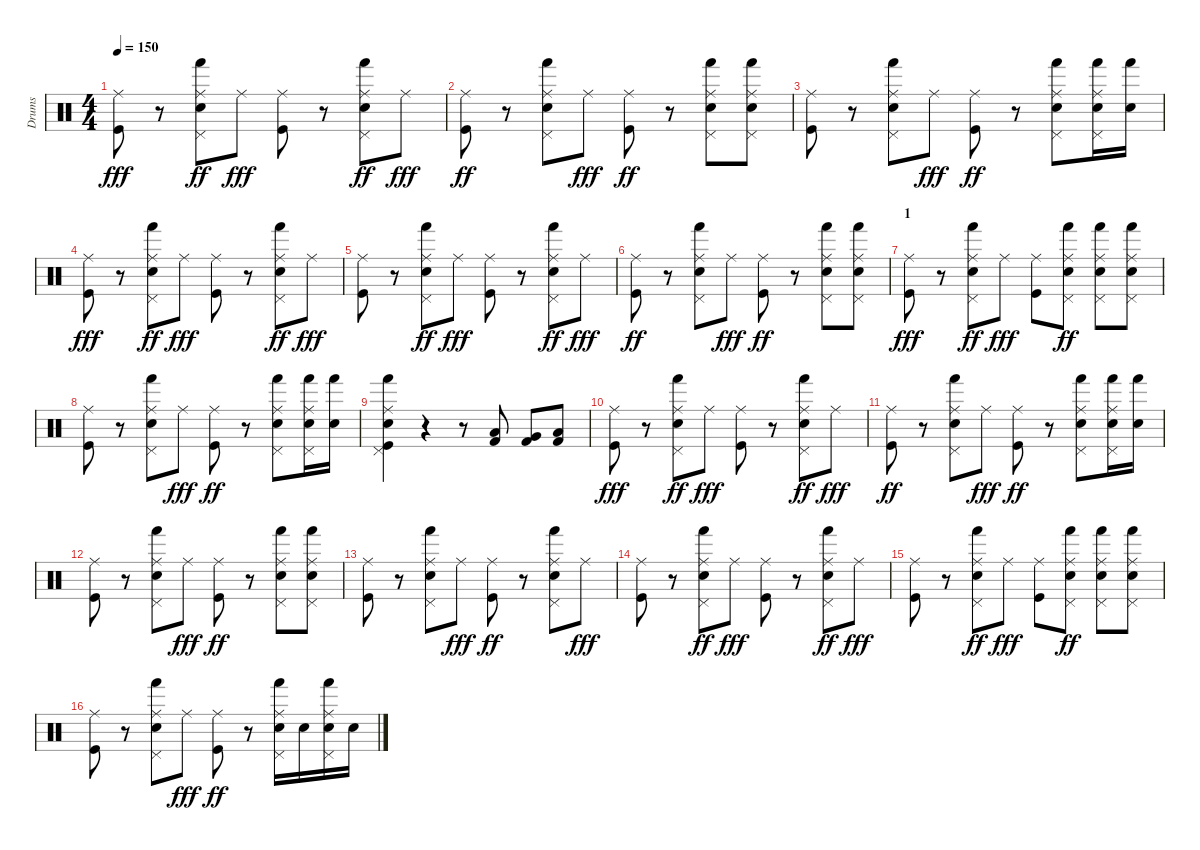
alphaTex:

\track ("Drums" "Drums") {instrument percussion}
\staff {score}
\articulation defaults
\ts (4 4)
\tempo 150
\clef neutral
\ks c
("Ride (middle)" "Kick (hit)").8{dy fff} r.8 ("Ride (middle)" "Pedal Hi-Hat (hit)" "Hand (hit)" "Electric Snare (hit)").8{dy ff} "Ride (middle)".8{dy fff} ("Ride (middle)" "Kick (hit)").8 r.8 ("Ride (middle)" "Pedal Hi-Hat (hit)" "Hand (hit)" "Electric Snare (hit)").8{dy ff} "Ride (middle)".8{dy fff} |
("Ride (middle)" "Kick (hit)").8{dy ff} r.8 ("Ride (middle)" "Pedal Hi-Hat (hit)" "Hand (hit)" "Electric Snare (hit)").8 "Ride (middle)".8{dy fff} ("Ride (middle)" "Kick (hit)").8{dy ff} r.8 ("Ride (middle)" "Pedal Hi-Hat (hit)" "Hand (hit)" "Electric Snare (hit)").8 ("Ride (middle)" "Pedal Hi-Hat (hit)" "Hand (hit)" "Electric Snare (hit)").8 |
("Ride (middle)" "Kick (hit)").8 r.8 ("Ride (middle)" "Pedal Hi-Hat (hit)" "Hand (hit)" "Electric Snare (hit)").8 "Ride (middle)".8{dy fff} ("Ride (middle)" "Kick (hit)").8{dy ff} r.8 ("Ride (middle)" "Pedal Hi-Hat (hit)" "Hand (hit)" "Electric Snare (hit)").8 ("Ride (middle)" "Pedal Hi-Hat (hit)" "Hand (hit)" "Electric Snare (hit)").16 ("Hand (hit)" "Electric Snare (hit)").16 |
("Ride (middle)" "Kick (hit)").8{dy fff} r.8 ("Ride (middle)" "Pedal Hi-Hat (hit)" "Hand (hit)" "Electric Snare (hit)").8{dy ff} "Ride (middle)".8{dy fff} ("Ride (middle)" "Kick (hit)").8 r.8 ("Ride (middle)" "Pedal Hi-Hat (hit)" "Hand (hit)" "Electric Snare (hit)").8{dy ff} "Ride (middle)".8{dy fff} |
("Ride (middle)" "Kick (hit)").8 r.8 ("Ride (middle)" "Pedal Hi-Hat (hit)" "Hand (hit)" "Electric Snare (hit)").8{dy ff} "Ride (middle)".8{dy fff} ("Ride (middle)" "Kick (hit)").8 r.8 ("Ride (middle)" "Pedal Hi-Hat (hit)" "Hand (hit)" "Electric Snare (hit)").8{dy ff} "Ride (middle)".8{dy fff} |
("Ride (middle)" "Kick (hit)").8{dy ff} r.8 ("Ride (middle)" "Pedal Hi-Hat (hit)" "Hand (hit)" "Electric Snare (hit)").8 "Ride (middle)".8{dy fff} ("Ride (middle)" "Kick (hit)").8{dy ff} r.8 ("Ride (middle)" "Pedal Hi-Hat (hit)" "Hand (hit)" "Electric Snare (hit)").8 ("Ride (middle)" "Pedal Hi-Hat (hit)" "Hand (hit)" "Electric Snare (hit)").8 |
\section ("" "1")
("Ride (middle)" "Kick (hit)").8{dy fff} r.8 ("Ride (middle)" "Pedal Hi-Hat (hit)" "Hand (hit)" "Electric Snare (hit)").8{dy ff} "Ride (middle)".8{dy fff} ("Ride (middle)" "Kick (hit)").8 ("Ride (middle)" "Pedal Hi-Hat (hit)" "Hand (hit)" "Electric Snare (hit)").8{dy ff} ("Ride (middle)" "Pedal Hi-Hat (hit)" "Hand (hit)" "Electric Snare (hit)").8 ("Ride (middle)" "Pedal Hi-Hat (hit)" "Hand (hit)" "Electric Snare (hit)").8 |
("Ride (middle)" "Kick (hit)").8 r.8 ("Ride (middle)" "Pedal Hi-Hat (hit)" "Hand (hit)" "Electric Snare (hit)").8 "Ride (middle)".8{dy fff} ("Ride (middle)" "Kick (hit)").8{dy ff} r.8 ("Ride (middle)" "Pedal Hi-Hat (hit)" "Hand (hit)" "Electric Snare (hit)").8 ("Ride (middle)" "Pedal Hi-Hat (hit)" "Hand (hit)" "Electric Snare (hit)").16 ("Hand (hit)" "Electric Snare (hit)").16 |
("Ride (middle)" "Pedal Hi-Hat (hit)" "Hand (hit)" "Electric Snare (hit)" "Kick (hit)").4 r.4 r.8 ("Low Floor Tom (hit)" "Kick (hit) 2").8 ("Very Low Tom (hit)" "Kick (hit) 2").8 ("Low Tom (hit)" "Kick (hit) 2").8 |
("Ride (middle)" "Kick (hit)").8{dy fff} r.8 ("Ride (middle)" "Pedal Hi-Hat (hit)" "Hand (hit)" "Electric Snare (hit)").8{dy ff} "Ride (middle)".8{dy fff} ("Ride (middle)" "Kick (hit)").8 r.8 ("Ride (middle)" "Pedal Hi-Hat (hit)" "Hand (hit)" "Electric Snare (hit)").8{dy ff} "Ride (middle)".8{dy fff} |
("Ride (middle)" "Kick (hit)").8{dy ff} r.8 ("Ride (middle)" "Pedal Hi-Hat (hit)" "Hand (hit)" "Electric Snare (hit)").8 "Ride (middle)".8{dy fff} ("Ride (middle)" "Kick (hit)").8{dy ff} r.8 ("Ride (middle)" "Pedal Hi-Hat (hit)" "Hand (hit)" "Electric Snare (hit)").8 ("Ride (middle)" "Pedal Hi-Hat (hit)" "Hand (hit)" "Electric Snare (hit)").16 ("Hand (hit)" "Electric Snare (hit)").16 |
("Ride (middle)" "Kick (hit)").8 r.8 ("Ride (middle)" "Pedal Hi-Hat (hit)" "Hand (hit)" "Electric Snare (hit)").8 "Ride (middle)".8{dy fff} ("Ride (middle)" "Kick (hit)").8{dy ff} r.8 ("Ride (middle)" "Pedal Hi-Hat (hit)" "Hand (hit)" "Electric Snare (hit)").8 ("Ride (middle)" "Pedal Hi-Hat (hit)" "Hand (hit)" "Electric Snare (hit)").8 |
("Ride (middle)" "Kick (hit)").8 r.8 ("Ride (middle)" "Pedal Hi-Hat (hit)" "Hand (hit)" "Electric Snare (hit)").8 "Ride (middle)".8{dy fff} ("Ride (middle)" "Kick (hit)").8{dy ff} r.8 ("Ride (middle)" "Pedal Hi-Hat (hit)" "Hand (hit)" "Electric Snare (hit)").8 "Ride (middle)".8{dy fff} |
("Ride (middle)" "Kick (hit)").8 r.8 ("Ride (middle)" "Pedal Hi-Hat (hit)" "Hand (hit)" "Electric Snare (hit)").8{dy ff} "Ride (middle)".8{dy fff} ("Ride (middle)" "Kick (hit)").8 r.8 ("Ride (middle)" "Pedal Hi-Hat (hit)" "Hand (hit)" "Electric Snare (hit)").8{dy ff} "Ride (middle)".8{dy fff} |
("Ride (middle)" "Kick (hit)").8 r.8 ("Ride (middle)" "Pedal Hi-Hat (hit)" "Hand (hit)" "Electric Snare (hit)").8{dy ff} "Ride (middle)".8{dy fff} ("Ride (middle)" "Kick (hit)").8 ("Ride (middle)" "Pedal Hi-Hat (hit)" "Hand (hit)" "Electric Snare (hit)").8{dy ff} ("Ride (middle)" "Pedal Hi-Hat (hit)" "Hand (hit)" "Electric Snare (hit)").8 ("Ride (middle)" "Pedal Hi-Hat (hit)" "Hand (hit)" "Electric Snare (hit)").8 |
("Ride (middle)" "Kick (hit)").8 r.8 ("Ride (middle)" "Pedal Hi-Hat (hit)" "Hand (hit)" "Electric Snare (hit)").8 "Ride (middle)".8{dy fff} ("Ride (middle)" "Kick (hit)").8{dy ff} r.8 ("Ride (middle)" "Pedal Hi-Hat (hit)" "Hand (hit)" "Electric Snare (hit)").16 "Electric Snare (hit)".16 ("Ride (middle)" "Pedal Hi-Hat (hit)" "Hand (hit)" "Electric Snare (hit)").16 "Electric Snare (hit)".16
